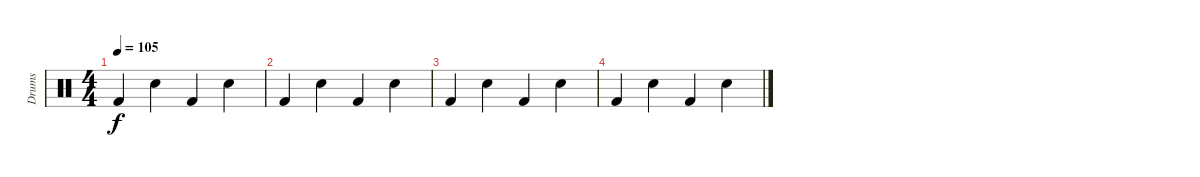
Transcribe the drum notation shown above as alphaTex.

\track ("Drums" "Drums") {instrument percussion}
\staff {score}
\articulation defaults
\ts (4 4)
\tempo 105
\clef neutral
\ks c "Kick (hit) 2".4{dy f} "Electric Snare (hit)".4 "Kick (hit) 2".4 "Electric Snare (hit)".4
|
"Kick (hit) 2".4 "Electric Snare (hit)".4 "Kick (hit) 2".4 "Electric Snare (hit)".4 |
"Kick (hit) 2".4 "Electric Snare (hit)".4 "Kick (hit) 2".4 "Electric Snare (hit)".4 |
"Kick (hit) 2".4 "Electric Snare (hit)".4 "Kick (hit) 2".4 "Electric Snare (hit)".4
